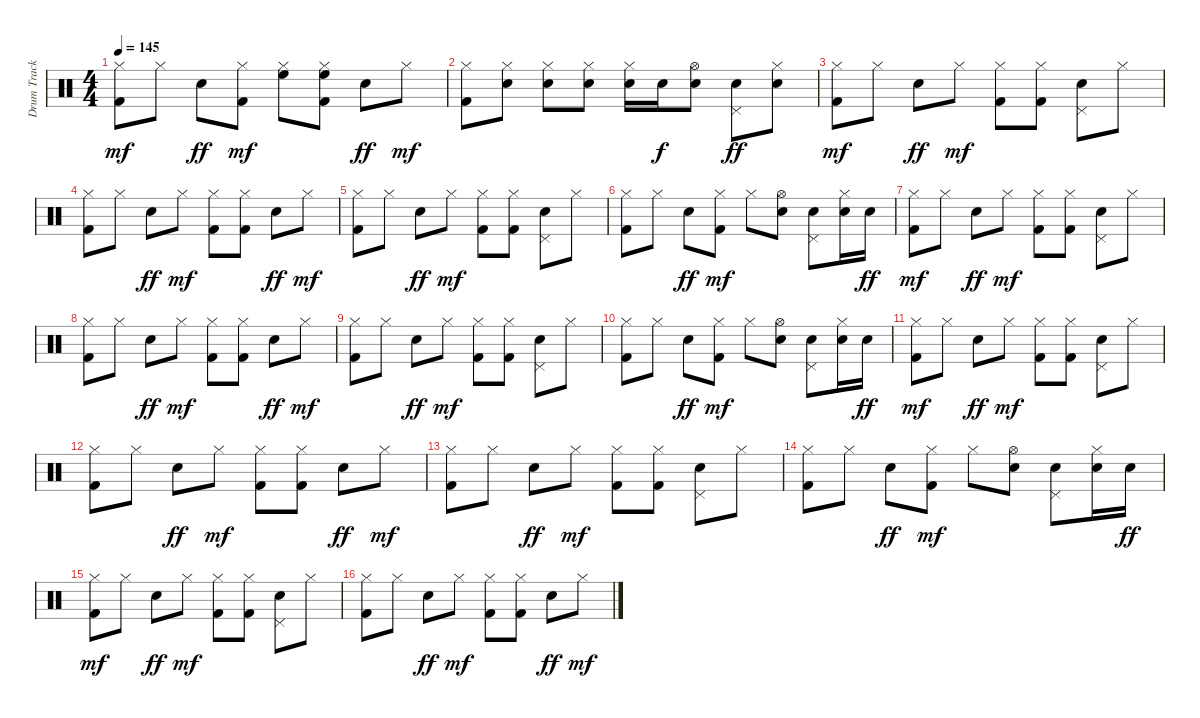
\track ("Drum Track" "Drum Track") {instrument percussion}
\staff {score}
\articulation defaults
\ts (4 4)
\tempo 145
\clef neutral
\ks c
("Kick (hit) 2" "Hi-Hat (closed)").8{dy mf} "Hi-Hat (closed)".8 "Electric Snare (hit)".8{dy ff} ("Kick (hit) 2" "Hi-Hat (closed)").8{dy mf} ("High Floor Tom (hit)" "Hi-Hat (closed)").8 ("Kick (hit) 2" "High Floor Tom (hit)" "Hi-Hat (closed)").8 "Electric Snare (hit)".8{dy ff} "Hi-Hat (closed)".8{dy mf} |
("Kick (hit) 2" "Hi-Hat (closed)").8 ("Electric Snare (hit)" "Hi-Hat (closed)").8 ("Electric Snare (hit)" "Hi-Hat (closed)").8 ("Electric Snare (hit)" "Hi-Hat (closed)").8 ("Electric Snare (hit)" "Hi-Hat (closed)").16 "Electric Snare (hit)".16{dy f} ("Electric Snare (hit)" "Hi-Hat (open)").8 ("Electric Snare (hit)" "Pedal Hi-Hat (hit)").8{dy ff} ("Electric Snare (hit)" "Hi-Hat (closed)").8 |
("Kick (hit) 2" "Hi-Hat (closed)").8{dy mf} "Hi-Hat (closed)".8 "Electric Snare (hit)".8{dy ff} "Hi-Hat (closed)".8{dy mf} ("Kick (hit) 2" "Hi-Hat (closed)").8 ("Kick (hit) 2" "Hi-Hat (closed)").8 ("Electric Snare (hit)" "Pedal Hi-Hat (hit)").8 "Hi-Hat (closed)".8 |
("Kick (hit) 2" "Hi-Hat (closed)").8 "Hi-Hat (closed)".8 "Electric Snare (hit)".8{dy ff} "Hi-Hat (closed)".8{dy mf} ("Kick (hit) 2" "Hi-Hat (closed)").8 ("Kick (hit) 2" "Hi-Hat (closed)").8 "Electric Snare (hit)".8{dy ff} "Hi-Hat (closed)".8{dy mf} |
("Kick (hit) 2" "Hi-Hat (closed)").8 "Hi-Hat (closed)".8 "Electric Snare (hit)".8{dy ff} "Hi-Hat (closed)".8{dy mf} ("Kick (hit) 2" "Hi-Hat (closed)").8 ("Kick (hit) 2" "Hi-Hat (closed)").8 ("Electric Snare (hit)" "Pedal Hi-Hat (hit)").8 "Hi-Hat (closed)".8 |
("Kick (hit) 2" "Hi-Hat (closed)").8 "Hi-Hat (closed)".8 "Electric Snare (hit)".8{dy ff} ("Kick (hit) 2" "Hi-Hat (closed)").8{dy mf} "Hi-Hat (closed)".8 ("Electric Snare (hit)" "Hi-Hat (open)").8 ("Electric Snare (hit)" "Pedal Hi-Hat (hit)").8 ("Electric Snare (hit)" "Hi-Hat (closed)").16 "Electric Snare (hit)".16{dy ff} |
("Kick (hit) 2" "Hi-Hat (closed)").8{dy mf} "Hi-Hat (closed)".8 "Electric Snare (hit)".8{dy ff} "Hi-Hat (closed)".8{dy mf} ("Kick (hit) 2" "Hi-Hat (closed)").8 ("Kick (hit) 2" "Hi-Hat (closed)").8 ("Electric Snare (hit)" "Pedal Hi-Hat (hit)").8 "Hi-Hat (closed)".8 |
("Kick (hit) 2" "Hi-Hat (closed)").8 "Hi-Hat (closed)".8 "Electric Snare (hit)".8{dy ff} "Hi-Hat (closed)".8{dy mf} ("Kick (hit) 2" "Hi-Hat (closed)").8 ("Kick (hit) 2" "Hi-Hat (closed)").8 "Electric Snare (hit)".8{dy ff} "Hi-Hat (closed)".8{dy mf} |
("Kick (hit) 2" "Hi-Hat (closed)").8 "Hi-Hat (closed)".8 "Electric Snare (hit)".8{dy ff} "Hi-Hat (closed)".8{dy mf} ("Kick (hit) 2" "Hi-Hat (closed)").8 ("Kick (hit) 2" "Hi-Hat (closed)").8 ("Electric Snare (hit)" "Pedal Hi-Hat (hit)").8 "Hi-Hat (closed)".8 |
("Kick (hit) 2" "Hi-Hat (closed)").8 "Hi-Hat (closed)".8 "Electric Snare (hit)".8{dy ff} ("Kick (hit) 2" "Hi-Hat (closed)").8{dy mf} "Hi-Hat (closed)".8 ("Electric Snare (hit)" "Hi-Hat (open)").8 ("Electric Snare (hit)" "Pedal Hi-Hat (hit)").8 ("Electric Snare (hit)" "Hi-Hat (closed)").16 "Electric Snare (hit)".16{dy ff} |
("Kick (hit) 2" "Hi-Hat (closed)").8{dy mf} "Hi-Hat (closed)".8 "Electric Snare (hit)".8{dy ff} "Hi-Hat (closed)".8{dy mf} ("Kick (hit) 2" "Hi-Hat (closed)").8 ("Kick (hit) 2" "Hi-Hat (closed)").8 ("Electric Snare (hit)" "Pedal Hi-Hat (hit)").8 "Hi-Hat (closed)".8 |
("Kick (hit) 2" "Hi-Hat (closed)").8 "Hi-Hat (closed)".8 "Electric Snare (hit)".8{dy ff} "Hi-Hat (closed)".8{dy mf} ("Kick (hit) 2" "Hi-Hat (closed)").8 ("Kick (hit) 2" "Hi-Hat (closed)").8 "Electric Snare (hit)".8{dy ff} "Hi-Hat (closed)".8{dy mf} |
("Kick (hit) 2" "Hi-Hat (closed)").8 "Hi-Hat (closed)".8 "Electric Snare (hit)".8{dy ff} "Hi-Hat (closed)".8{dy mf} ("Kick (hit) 2" "Hi-Hat (closed)").8 ("Kick (hit) 2" "Hi-Hat (closed)").8 ("Electric Snare (hit)" "Pedal Hi-Hat (hit)").8 "Hi-Hat (closed)".8 |
("Kick (hit) 2" "Hi-Hat (closed)").8 "Hi-Hat (closed)".8 "Electric Snare (hit)".8{dy ff} ("Kick (hit) 2" "Hi-Hat (closed)").8{dy mf} "Hi-Hat (closed)".8 ("Electric Snare (hit)" "Hi-Hat (open)").8 ("Electric Snare (hit)" "Pedal Hi-Hat (hit)").8 ("Electric Snare (hit)" "Hi-Hat (closed)").16 "Electric Snare (hit)".16{dy ff} |
("Kick (hit) 2" "Hi-Hat (closed)").8{dy mf} "Hi-Hat (closed)".8 "Electric Snare (hit)".8{dy ff} "Hi-Hat (closed)".8{dy mf} ("Kick (hit) 2" "Hi-Hat (closed)").8 ("Kick (hit) 2" "Hi-Hat (closed)").8 ("Electric Snare (hit)" "Pedal Hi-Hat (hit)").8 "Hi-Hat (closed)".8 |
("Kick (hit) 2" "Hi-Hat (closed)").8 "Hi-Hat (closed)".8 "Electric Snare (hit)".8{dy ff} "Hi-Hat (closed)".8{dy mf} ("Kick (hit) 2" "Hi-Hat (closed)").8 ("Kick (hit) 2" "Hi-Hat (closed)").8 "Electric Snare (hit)".8{dy ff} "Hi-Hat (closed)".8{dy mf}
